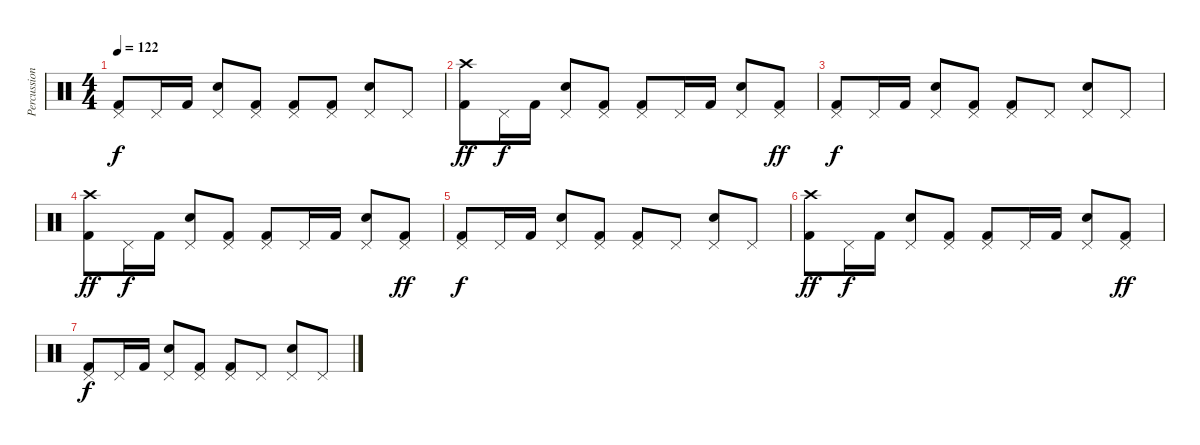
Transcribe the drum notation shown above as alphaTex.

\track ("Percussion" "Percussion") {instrument percussion}
\staff {score}
\articulation defaults
\ts (4 4)
\tempo 122
\clef neutral
\ks c
("Pedal Hi-Hat (hit)" "Kick (hit) 2").8{dy f} "Pedal Hi-Hat (hit)".16 "Kick (hit) 2".16 ("Pedal Hi-Hat (hit)" "Electric Snare (hit)").8 ("Pedal Hi-Hat (hit)" "Kick (hit) 2").8 ("Pedal Hi-Hat (hit)" "Kick (hit) 2").8 ("Pedal Hi-Hat (hit)" "Kick (hit) 2").8 ("Pedal Hi-Hat (hit)" "Electric Snare (hit)").8 "Pedal Hi-Hat (hit)".8 |
("Crash high (hit)" "Kick (hit) 2").8{dy ff} "Pedal Hi-Hat (hit)".16{dy f} "Kick (hit) 2".16 ("Pedal Hi-Hat (hit)" "Electric Snare (hit)").8 ("Pedal Hi-Hat (hit)" "Kick (hit) 2").8 ("Pedal Hi-Hat (hit)" "Kick (hit) 2").8 "Pedal Hi-Hat (hit)".16 "Kick (hit) 2".16 ("Pedal Hi-Hat (hit)" "Electric Snare (hit)").8 ("Pedal Hi-Hat (hit)" "Kick (hit) 2").8{dy ff} |
("Pedal Hi-Hat (hit)" "Kick (hit) 2").8{dy f} "Pedal Hi-Hat (hit)".16 "Kick (hit) 2".16 ("Pedal Hi-Hat (hit)" "Electric Snare (hit)").8 ("Pedal Hi-Hat (hit)" "Kick (hit) 2").8 ("Pedal Hi-Hat (hit)" "Kick (hit) 2").8 "Pedal Hi-Hat (hit)".8 ("Pedal Hi-Hat (hit)" "Electric Snare (hit)").8 "Pedal Hi-Hat (hit)".8 |
("Crash high (hit)" "Kick (hit) 2").8{dy ff} "Pedal Hi-Hat (hit)".16{dy f} "Kick (hit) 2".16 ("Pedal Hi-Hat (hit)" "Electric Snare (hit)").8 ("Pedal Hi-Hat (hit)" "Kick (hit) 2").8 ("Pedal Hi-Hat (hit)" "Kick (hit) 2").8 "Pedal Hi-Hat (hit)".16 "Kick (hit) 2".16 ("Pedal Hi-Hat (hit)" "Electric Snare (hit)").8 ("Pedal Hi-Hat (hit)" "Kick (hit) 2").8{dy ff} |
("Pedal Hi-Hat (hit)" "Kick (hit) 2").8{dy f} "Pedal Hi-Hat (hit)".16 "Kick (hit) 2".16 ("Pedal Hi-Hat (hit)" "Electric Snare (hit)").8 ("Pedal Hi-Hat (hit)" "Kick (hit) 2").8 ("Pedal Hi-Hat (hit)" "Kick (hit) 2").8 "Pedal Hi-Hat (hit)".8 ("Pedal Hi-Hat (hit)" "Electric Snare (hit)").8 "Pedal Hi-Hat (hit)".8 |
("Crash high (hit)" "Kick (hit) 2").8{dy ff} "Pedal Hi-Hat (hit)".16{dy f} "Kick (hit) 2".16 ("Pedal Hi-Hat (hit)" "Electric Snare (hit)").8 ("Pedal Hi-Hat (hit)" "Kick (hit) 2").8 ("Pedal Hi-Hat (hit)" "Kick (hit) 2").8 "Pedal Hi-Hat (hit)".16 "Kick (hit) 2".16 ("Pedal Hi-Hat (hit)" "Electric Snare (hit)").8 ("Pedal Hi-Hat (hit)" "Kick (hit) 2").8{dy ff} |
("Pedal Hi-Hat (hit)" "Kick (hit) 2").8{dy f} "Pedal Hi-Hat (hit)".16 "Kick (hit) 2".16 ("Pedal Hi-Hat (hit)" "Electric Snare (hit)").8 ("Pedal Hi-Hat (hit)" "Kick (hit) 2").8 ("Pedal Hi-Hat (hit)" "Kick (hit) 2").8 "Pedal Hi-Hat (hit)".8 ("Pedal Hi-Hat (hit)" "Electric Snare (hit)").8 "Pedal Hi-Hat (hit)".8
